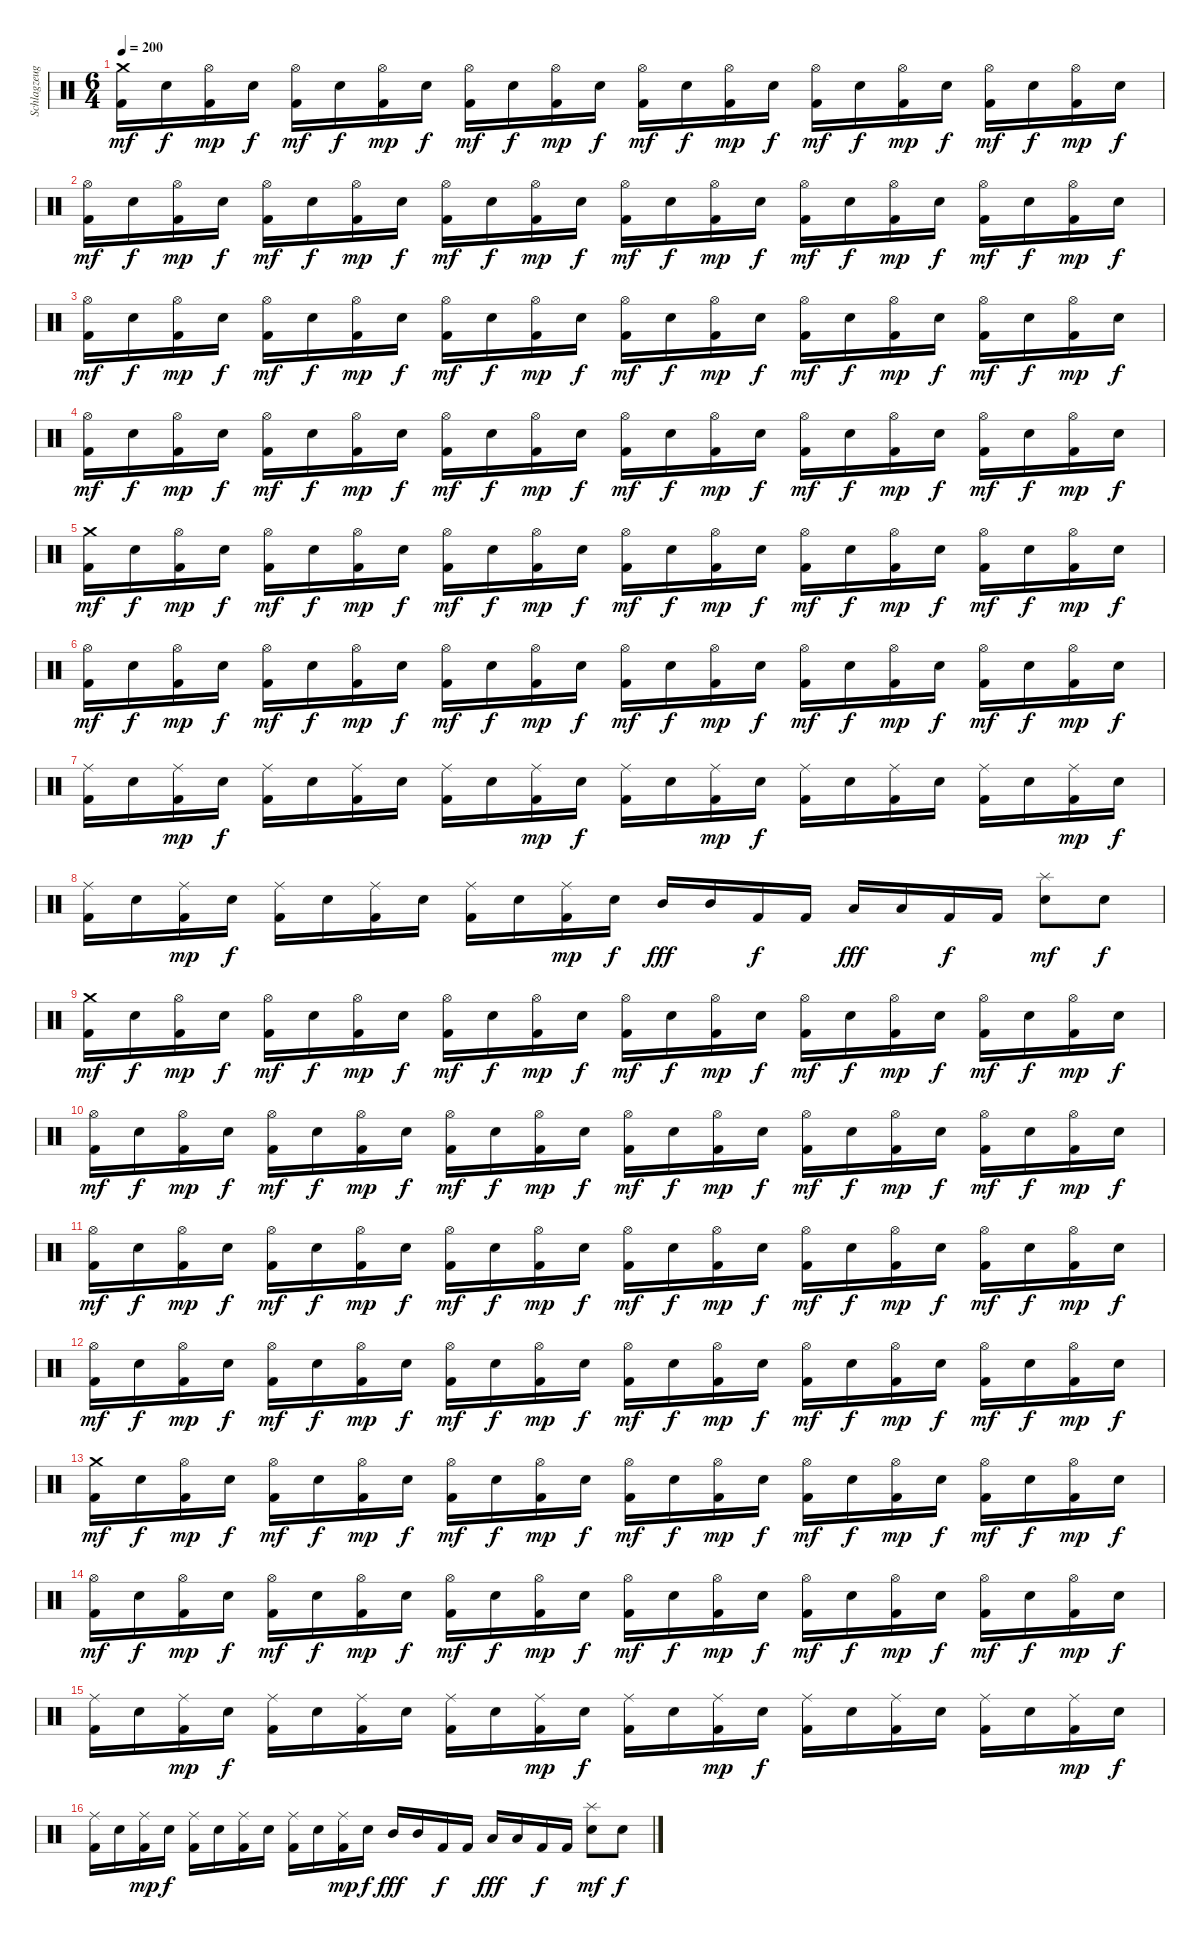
\track ("Schlagzeug" "Schlagzeug") {instrument percussion}
\staff {score}
\articulation defaults
\ts (6 4)
\section ("" "")
\tempo 200
\clef neutral
\ks c
("Crash medium (hit)" "Kick (hit) 2").16{dy mf} "Electric Snare (hit)".16{dy f} ("Hi-Hat (open)" "Kick (hit) 2").16{dy mp} "Electric Snare (hit)".16{dy f} ("Hi-Hat (open)" "Kick (hit) 2").16{dy mf} "Electric Snare (hit)".16{dy f} ("Hi-Hat (open)" "Kick (hit) 2").16{dy mp} "Electric Snare (hit)".16{dy f} ("Hi-Hat (open)" "Kick (hit) 2").16{dy mf} "Electric Snare (hit)".16{dy f} ("Hi-Hat (open)" "Kick (hit) 2").16{dy mp} "Electric Snare (hit)".16{dy f} ("Hi-Hat (open)" "Kick (hit) 2").16{dy mf} "Electric Snare (hit)".16{dy f} ("Hi-Hat (open)" "Kick (hit) 2").16{dy mp} "Electric Snare (hit)".16{dy f} ("Hi-Hat (open)" "Kick (hit) 2").16{dy mf} "Electric Snare (hit)".16{dy f} ("Hi-Hat (open)" "Kick (hit) 2").16{dy mp} "Electric Snare (hit)".16{dy f} ("Hi-Hat (open)" "Kick (hit) 2").16{dy mf} "Electric Snare (hit)".16{dy f} ("Hi-Hat (open)" "Kick (hit) 2").16{dy mp} "Electric Snare (hit)".16{dy f} |
("Hi-Hat (open)" "Kick (hit) 2").16{dy mf} "Electric Snare (hit)".16{dy f} ("Hi-Hat (open)" "Kick (hit) 2").16{dy mp} "Electric Snare (hit)".16{dy f} ("Hi-Hat (open)" "Kick (hit) 2").16{dy mf} "Electric Snare (hit)".16{dy f} ("Hi-Hat (open)" "Kick (hit) 2").16{dy mp} "Electric Snare (hit)".16{dy f} ("Hi-Hat (open)" "Kick (hit) 2").16{dy mf} "Electric Snare (hit)".16{dy f} ("Hi-Hat (open)" "Kick (hit) 2").16{dy mp} "Electric Snare (hit)".16{dy f} ("Hi-Hat (open)" "Kick (hit) 2").16{dy mf} "Electric Snare (hit)".16{dy f} ("Hi-Hat (open)" "Kick (hit) 2").16{dy mp} "Electric Snare (hit)".16{dy f} ("Hi-Hat (open)" "Kick (hit) 2").16{dy mf} "Electric Snare (hit)".16{dy f} ("Hi-Hat (open)" "Kick (hit) 2").16{dy mp} "Electric Snare (hit)".16{dy f} ("Hi-Hat (open)" "Kick (hit) 2").16{dy mf} "Electric Snare (hit)".16{dy f} ("Hi-Hat (open)" "Kick (hit) 2").16{dy mp} "Electric Snare (hit)".16{dy f} |
("Hi-Hat (open)" "Kick (hit) 2").16{dy mf} "Electric Snare (hit)".16{dy f} ("Hi-Hat (open)" "Kick (hit) 2").16{dy mp} "Electric Snare (hit)".16{dy f} ("Hi-Hat (open)" "Kick (hit) 2").16{dy mf} "Electric Snare (hit)".16{dy f} ("Hi-Hat (open)" "Kick (hit) 2").16{dy mp} "Electric Snare (hit)".16{dy f} ("Hi-Hat (open)" "Kick (hit) 2").16{dy mf} "Electric Snare (hit)".16{dy f} ("Hi-Hat (open)" "Kick (hit) 2").16{dy mp} "Electric Snare (hit)".16{dy f} ("Hi-Hat (open)" "Kick (hit) 2").16{dy mf} "Electric Snare (hit)".16{dy f} ("Hi-Hat (open)" "Kick (hit) 2").16{dy mp} "Electric Snare (hit)".16{dy f} ("Hi-Hat (open)" "Kick (hit) 2").16{dy mf} "Electric Snare (hit)".16{dy f} ("Hi-Hat (open)" "Kick (hit) 2").16{dy mp} "Electric Snare (hit)".16{dy f} ("Hi-Hat (open)" "Kick (hit) 2").16{dy mf} "Electric Snare (hit)".16{dy f} ("Hi-Hat (open)" "Kick (hit) 2").16{dy mp} "Electric Snare (hit)".16{dy f} |
("Hi-Hat (open)" "Kick (hit) 2").16{dy mf} "Electric Snare (hit)".16{dy f} ("Hi-Hat (open)" "Kick (hit) 2").16{dy mp} "Electric Snare (hit)".16{dy f} ("Hi-Hat (open)" "Kick (hit) 2").16{dy mf} "Electric Snare (hit)".16{dy f} ("Hi-Hat (open)" "Kick (hit) 2").16{dy mp} "Electric Snare (hit)".16{dy f} ("Hi-Hat (open)" "Kick (hit) 2").16{dy mf} "Electric Snare (hit)".16{dy f} ("Hi-Hat (open)" "Kick (hit) 2").16{dy mp} "Electric Snare (hit)".16{dy f} ("Hi-Hat (open)" "Kick (hit) 2").16{dy mf} "Electric Snare (hit)".16{dy f} ("Hi-Hat (open)" "Kick (hit) 2").16{dy mp} "Electric Snare (hit)".16{dy f} ("Hi-Hat (open)" "Kick (hit) 2").16{dy mf} "Electric Snare (hit)".16{dy f} ("Hi-Hat (open)" "Kick (hit) 2").16{dy mp} "Electric Snare (hit)".16{dy f} ("Hi-Hat (open)" "Kick (hit) 2").16{dy mf} "Electric Snare (hit)".16{dy f} ("Hi-Hat (open)" "Kick (hit) 2").16{dy mp} "Electric Snare (hit)".16{dy f} |
("Crash medium (hit)" "Kick (hit) 2").16{dy mf} "Electric Snare (hit)".16{dy f} ("Hi-Hat (open)" "Kick (hit) 2").16{dy mp} "Electric Snare (hit)".16{dy f} ("Hi-Hat (open)" "Kick (hit) 2").16{dy mf} "Electric Snare (hit)".16{dy f} ("Hi-Hat (open)" "Kick (hit) 2").16{dy mp} "Electric Snare (hit)".16{dy f} ("Hi-Hat (open)" "Kick (hit) 2").16{dy mf} "Electric Snare (hit)".16{dy f} ("Hi-Hat (open)" "Kick (hit) 2").16{dy mp} "Electric Snare (hit)".16{dy f} ("Hi-Hat (open)" "Kick (hit) 2").16{dy mf} "Electric Snare (hit)".16{dy f} ("Hi-Hat (open)" "Kick (hit) 2").16{dy mp} "Electric Snare (hit)".16{dy f} ("Hi-Hat (open)" "Kick (hit) 2").16{dy mf} "Electric Snare (hit)".16{dy f} ("Hi-Hat (open)" "Kick (hit) 2").16{dy mp} "Electric Snare (hit)".16{dy f} ("Hi-Hat (open)" "Kick (hit) 2").16{dy mf} "Electric Snare (hit)".16{dy f} ("Hi-Hat (open)" "Kick (hit) 2").16{dy mp} "Electric Snare (hit)".16{dy f} |
("Hi-Hat (open)" "Kick (hit) 2").16{dy mf} "Electric Snare (hit)".16{dy f} ("Hi-Hat (open)" "Kick (hit) 2").16{dy mp} "Electric Snare (hit)".16{dy f} ("Hi-Hat (open)" "Kick (hit) 2").16{dy mf} "Electric Snare (hit)".16{dy f} ("Hi-Hat (open)" "Kick (hit) 2").16{dy mp} "Electric Snare (hit)".16{dy f} ("Hi-Hat (open)" "Kick (hit) 2").16{dy mf} "Electric Snare (hit)".16{dy f} ("Hi-Hat (open)" "Kick (hit) 2").16{dy mp} "Electric Snare (hit)".16{dy f} ("Hi-Hat (open)" "Kick (hit) 2").16{dy mf} "Electric Snare (hit)".16{dy f} ("Hi-Hat (open)" "Kick (hit) 2").16{dy mp} "Electric Snare (hit)".16{dy f} ("Hi-Hat (open)" "Kick (hit) 2").16{dy mf} "Electric Snare (hit)".16{dy f} ("Hi-Hat (open)" "Kick (hit) 2").16{dy mp} "Electric Snare (hit)".16{dy f} ("Hi-Hat (open)" "Kick (hit) 2").16{dy mf} "Electric Snare (hit)".16{dy f} ("Hi-Hat (open)" "Kick (hit) 2").16{dy mp} "Electric Snare (hit)".16{dy f} |
("Ride (middle)" "Kick (hit) 2").16 "Electric Snare (hit)".16 ("Ride (middle)" "Kick (hit) 2").16{dy mp} "Electric Snare (hit)".16{dy f} ("Ride (middle)" "Kick (hit) 2").16 "Electric Snare (hit)".16 ("Ride (middle)" "Kick (hit) 2").16 "Electric Snare (hit)".16 ("Ride (middle)" "Kick (hit) 2").16 "Electric Snare (hit)".16 ("Ride (middle)" "Kick (hit) 2").16{dy mp} "Electric Snare (hit)".16{dy f} ("Ride (middle)" "Kick (hit) 2").16 "Electric Snare (hit)".16 ("Ride (middle)" "Kick (hit) 2").16{dy mp} "Electric Snare (hit)".16{dy f} ("Ride (middle)" "Kick (hit) 2").16 "Electric Snare (hit)".16 ("Ride (middle)" "Kick (hit) 2").16 "Electric Snare (hit)".16 ("Ride (middle)" "Kick (hit) 2").16 "Electric Snare (hit)".16 ("Ride (middle)" "Kick (hit) 2").16{dy mp} "Electric Snare (hit)".16{dy f} |
("Ride (middle)" "Kick (hit) 2").16 "Electric Snare (hit)".16 ("Ride (middle)" "Kick (hit) 2").16{dy mp} "Electric Snare (hit)".16{dy f} ("Ride (middle)" "Kick (hit) 2").16 "Electric Snare (hit)".16 ("Ride (middle)" "Kick (hit) 2").16 "Electric Snare (hit)".16 ("Ride (middle)" "Kick (hit) 2").16 "Electric Snare (hit)".16 ("Ride (middle)" "Kick (hit) 2").16{dy mp} "Electric Snare (hit)".16{dy f} "Mid Tom (hit)".16{dy fff} "Mid Tom (hit)".16 "Kick (hit) 2".16{dy f} "Kick (hit) 2".16 "Low Tom (hit)".16{dy fff} "Low Tom (hit)".16 "Kick (hit) 2".16{dy f} "Kick (hit) 2".16 ("Splash (hit)" "Electric Snare (hit)").8{dy mf} "Electric Snare (hit)".8{dy f} |
("Crash medium (hit)" "Kick (hit) 2").16{dy mf} "Electric Snare (hit)".16{dy f} ("Hi-Hat (open)" "Kick (hit) 2").16{dy mp} "Electric Snare (hit)".16{dy f} ("Hi-Hat (open)" "Kick (hit) 2").16{dy mf} "Electric Snare (hit)".16{dy f} ("Hi-Hat (open)" "Kick (hit) 2").16{dy mp} "Electric Snare (hit)".16{dy f} ("Hi-Hat (open)" "Kick (hit) 2").16{dy mf} "Electric Snare (hit)".16{dy f} ("Hi-Hat (open)" "Kick (hit) 2").16{dy mp} "Electric Snare (hit)".16{dy f} ("Hi-Hat (open)" "Kick (hit) 2").16{dy mf} "Electric Snare (hit)".16{dy f} ("Hi-Hat (open)" "Kick (hit) 2").16{dy mp} "Electric Snare (hit)".16{dy f} ("Hi-Hat (open)" "Kick (hit) 2").16{dy mf} "Electric Snare (hit)".16{dy f} ("Hi-Hat (open)" "Kick (hit) 2").16{dy mp} "Electric Snare (hit)".16{dy f} ("Hi-Hat (open)" "Kick (hit) 2").16{dy mf} "Electric Snare (hit)".16{dy f} ("Hi-Hat (open)" "Kick (hit) 2").16{dy mp} "Electric Snare (hit)".16{dy f} |
("Hi-Hat (open)" "Kick (hit) 2").16{dy mf} "Electric Snare (hit)".16{dy f} ("Hi-Hat (open)" "Kick (hit) 2").16{dy mp} "Electric Snare (hit)".16{dy f} ("Hi-Hat (open)" "Kick (hit) 2").16{dy mf} "Electric Snare (hit)".16{dy f} ("Hi-Hat (open)" "Kick (hit) 2").16{dy mp} "Electric Snare (hit)".16{dy f} ("Hi-Hat (open)" "Kick (hit) 2").16{dy mf} "Electric Snare (hit)".16{dy f} ("Hi-Hat (open)" "Kick (hit) 2").16{dy mp} "Electric Snare (hit)".16{dy f} ("Hi-Hat (open)" "Kick (hit) 2").16{dy mf} "Electric Snare (hit)".16{dy f} ("Hi-Hat (open)" "Kick (hit) 2").16{dy mp} "Electric Snare (hit)".16{dy f} ("Hi-Hat (open)" "Kick (hit) 2").16{dy mf} "Electric Snare (hit)".16{dy f} ("Hi-Hat (open)" "Kick (hit) 2").16{dy mp} "Electric Snare (hit)".16{dy f} ("Hi-Hat (open)" "Kick (hit) 2").16{dy mf} "Electric Snare (hit)".16{dy f} ("Hi-Hat (open)" "Kick (hit) 2").16{dy mp} "Electric Snare (hit)".16{dy f} |
("Hi-Hat (open)" "Kick (hit) 2").16{dy mf} "Electric Snare (hit)".16{dy f} ("Hi-Hat (open)" "Kick (hit) 2").16{dy mp} "Electric Snare (hit)".16{dy f} ("Hi-Hat (open)" "Kick (hit) 2").16{dy mf} "Electric Snare (hit)".16{dy f} ("Hi-Hat (open)" "Kick (hit) 2").16{dy mp} "Electric Snare (hit)".16{dy f} ("Hi-Hat (open)" "Kick (hit) 2").16{dy mf} "Electric Snare (hit)".16{dy f} ("Hi-Hat (open)" "Kick (hit) 2").16{dy mp} "Electric Snare (hit)".16{dy f} ("Hi-Hat (open)" "Kick (hit) 2").16{dy mf} "Electric Snare (hit)".16{dy f} ("Hi-Hat (open)" "Kick (hit) 2").16{dy mp} "Electric Snare (hit)".16{dy f} ("Hi-Hat (open)" "Kick (hit) 2").16{dy mf} "Electric Snare (hit)".16{dy f} ("Hi-Hat (open)" "Kick (hit) 2").16{dy mp} "Electric Snare (hit)".16{dy f} ("Hi-Hat (open)" "Kick (hit) 2").16{dy mf} "Electric Snare (hit)".16{dy f} ("Hi-Hat (open)" "Kick (hit) 2").16{dy mp} "Electric Snare (hit)".16{dy f} |
("Hi-Hat (open)" "Kick (hit) 2").16{dy mf} "Electric Snare (hit)".16{dy f} ("Hi-Hat (open)" "Kick (hit) 2").16{dy mp} "Electric Snare (hit)".16{dy f} ("Hi-Hat (open)" "Kick (hit) 2").16{dy mf} "Electric Snare (hit)".16{dy f} ("Hi-Hat (open)" "Kick (hit) 2").16{dy mp} "Electric Snare (hit)".16{dy f} ("Hi-Hat (open)" "Kick (hit) 2").16{dy mf} "Electric Snare (hit)".16{dy f} ("Hi-Hat (open)" "Kick (hit) 2").16{dy mp} "Electric Snare (hit)".16{dy f} ("Hi-Hat (open)" "Kick (hit) 2").16{dy mf} "Electric Snare (hit)".16{dy f} ("Hi-Hat (open)" "Kick (hit) 2").16{dy mp} "Electric Snare (hit)".16{dy f} ("Hi-Hat (open)" "Kick (hit) 2").16{dy mf} "Electric Snare (hit)".16{dy f} ("Hi-Hat (open)" "Kick (hit) 2").16{dy mp} "Electric Snare (hit)".16{dy f} ("Hi-Hat (open)" "Kick (hit) 2").16{dy mf} "Electric Snare (hit)".16{dy f} ("Hi-Hat (open)" "Kick (hit) 2").16{dy mp} "Electric Snare (hit)".16{dy f} |
("Crash medium (hit)" "Kick (hit) 2").16{dy mf} "Electric Snare (hit)".16{dy f} ("Hi-Hat (open)" "Kick (hit) 2").16{dy mp} "Electric Snare (hit)".16{dy f} ("Hi-Hat (open)" "Kick (hit) 2").16{dy mf} "Electric Snare (hit)".16{dy f} ("Hi-Hat (open)" "Kick (hit) 2").16{dy mp} "Electric Snare (hit)".16{dy f} ("Hi-Hat (open)" "Kick (hit) 2").16{dy mf} "Electric Snare (hit)".16{dy f} ("Hi-Hat (open)" "Kick (hit) 2").16{dy mp} "Electric Snare (hit)".16{dy f} ("Hi-Hat (open)" "Kick (hit) 2").16{dy mf} "Electric Snare (hit)".16{dy f} ("Hi-Hat (open)" "Kick (hit) 2").16{dy mp} "Electric Snare (hit)".16{dy f} ("Hi-Hat (open)" "Kick (hit) 2").16{dy mf} "Electric Snare (hit)".16{dy f} ("Hi-Hat (open)" "Kick (hit) 2").16{dy mp} "Electric Snare (hit)".16{dy f} ("Hi-Hat (open)" "Kick (hit) 2").16{dy mf} "Electric Snare (hit)".16{dy f} ("Hi-Hat (open)" "Kick (hit) 2").16{dy mp} "Electric Snare (hit)".16{dy f} |
("Hi-Hat (open)" "Kick (hit) 2").16{dy mf} "Electric Snare (hit)".16{dy f} ("Hi-Hat (open)" "Kick (hit) 2").16{dy mp} "Electric Snare (hit)".16{dy f} ("Hi-Hat (open)" "Kick (hit) 2").16{dy mf} "Electric Snare (hit)".16{dy f} ("Hi-Hat (open)" "Kick (hit) 2").16{dy mp} "Electric Snare (hit)".16{dy f} ("Hi-Hat (open)" "Kick (hit) 2").16{dy mf} "Electric Snare (hit)".16{dy f} ("Hi-Hat (open)" "Kick (hit) 2").16{dy mp} "Electric Snare (hit)".16{dy f} ("Hi-Hat (open)" "Kick (hit) 2").16{dy mf} "Electric Snare (hit)".16{dy f} ("Hi-Hat (open)" "Kick (hit) 2").16{dy mp} "Electric Snare (hit)".16{dy f} ("Hi-Hat (open)" "Kick (hit) 2").16{dy mf} "Electric Snare (hit)".16{dy f} ("Hi-Hat (open)" "Kick (hit) 2").16{dy mp} "Electric Snare (hit)".16{dy f} ("Hi-Hat (open)" "Kick (hit) 2").16{dy mf} "Electric Snare (hit)".16{dy f} ("Hi-Hat (open)" "Kick (hit) 2").16{dy mp} "Electric Snare (hit)".16{dy f} |
("Ride (middle)" "Kick (hit) 2").16 "Electric Snare (hit)".16 ("Ride (middle)" "Kick (hit) 2").16{dy mp} "Electric Snare (hit)".16{dy f} ("Ride (middle)" "Kick (hit) 2").16 "Electric Snare (hit)".16 ("Ride (middle)" "Kick (hit) 2").16 "Electric Snare (hit)".16 ("Ride (middle)" "Kick (hit) 2").16 "Electric Snare (hit)".16 ("Ride (middle)" "Kick (hit) 2").16{dy mp} "Electric Snare (hit)".16{dy f} ("Ride (middle)" "Kick (hit) 2").16 "Electric Snare (hit)".16 ("Ride (middle)" "Kick (hit) 2").16{dy mp} "Electric Snare (hit)".16{dy f} ("Ride (middle)" "Kick (hit) 2").16 "Electric Snare (hit)".16 ("Ride (middle)" "Kick (hit) 2").16 "Electric Snare (hit)".16 ("Ride (middle)" "Kick (hit) 2").16 "Electric Snare (hit)".16 ("Ride (middle)" "Kick (hit) 2").16{dy mp} "Electric Snare (hit)".16{dy f} |
("Ride (middle)" "Kick (hit) 2").16 "Electric Snare (hit)".16 ("Ride (middle)" "Kick (hit) 2").16{dy mp} "Electric Snare (hit)".16{dy f} ("Ride (middle)" "Kick (hit) 2").16 "Electric Snare (hit)".16 ("Ride (middle)" "Kick (hit) 2").16 "Electric Snare (hit)".16 ("Ride (middle)" "Kick (hit) 2").16 "Electric Snare (hit)".16 ("Ride (middle)" "Kick (hit) 2").16{dy mp} "Electric Snare (hit)".16{dy f} "Mid Tom (hit)".16{dy fff} "Mid Tom (hit)".16 "Kick (hit) 2".16{dy f} "Kick (hit) 2".16 "Low Tom (hit)".16{dy fff} "Low Tom (hit)".16 "Kick (hit) 2".16{dy f} "Kick (hit) 2".16 ("Splash (hit)" "Electric Snare (hit)").8{dy mf} "Electric Snare (hit)".8{dy f}
